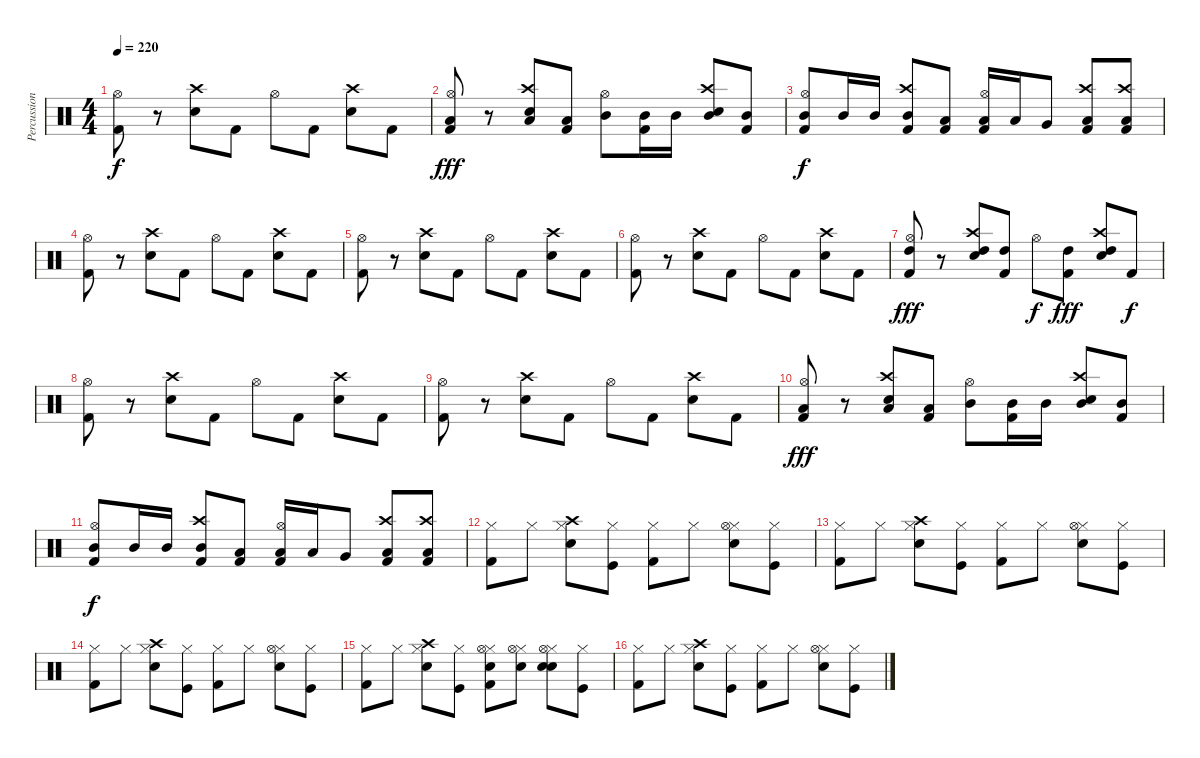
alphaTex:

\track ("Percussion" "Percussion") {instrument percussion}
\staff {score}
\articulation defaults
\ts (4 4)
\tempo 220
\clef neutral
\ks c
("Kick (hit) 2" "Hi-Hat (open)").8{dy f} r.8 ("Snare (hit) 2" "Crash high (hit)").8 "Kick (hit) 2".8 "Hi-Hat (open)".8 "Kick (hit) 2".8 ("Snare (hit) 2" "Crash high (hit)").8 "Kick (hit) 2".8 |
("Kick (hit) 2" "Low Tom (hit)" "Hi-Hat (open)").8{dy fff} r.8 ("Snare (hit) 2" "Low Tom (hit)" "Crash high (hit)").8 ("Kick (hit) 2" "Low Tom (hit)").8 ("Mid Tom (hit)" "Hi-Hat (open)").8 ("Kick (hit) 2" "Mid Tom (hit)").16 "Mid Tom (hit)".16 ("Snare (hit) 2" "Mid Tom (hit)" "Crash high (hit)").8 ("Kick (hit) 2" "Mid Tom (hit)").8 |
("Mid Tom (hit)" "Hi-Hat (open)" "Kick (hit) 2").8{dy f} "Mid Tom (hit)".16 "Mid Tom (hit)".16 ("Mid Tom (hit)" "Crash high (hit)" "Kick (hit) 2").8 ("Low Tom (hit)" "Kick (hit) 2").8 ("Low Tom (hit)" "Hi-Hat (open)" "Kick (hit) 2").16 "Low Tom (hit)".16 "Very Low Tom (hit)".8 ("Low Tom (hit)" "Crash high (hit)" "Kick (hit) 2").8 ("Low Floor Tom (hit)" "Crash high (hit)" "Kick (hit) 2").8 |
("Kick (hit) 2" "Hi-Hat (open)").8 r.8 ("Snare (hit) 2" "Crash high (hit)").8 "Kick (hit) 2".8 "Hi-Hat (open)".8 "Kick (hit) 2".8 ("Snare (hit) 2" "Crash high (hit)").8 "Kick (hit) 2".8 |
("Kick (hit) 2" "Hi-Hat (open)").8 r.8 ("Snare (hit) 2" "Crash high (hit)").8 "Kick (hit) 2".8 "Hi-Hat (open)".8 "Kick (hit) 2".8 ("Snare (hit) 2" "Crash high (hit)").8 "Kick (hit) 2".8 |
("Kick (hit) 2" "Hi-Hat (open)").8 r.8 ("Snare (hit) 2" "Crash high (hit)").8 "Kick (hit) 2".8 "Hi-Hat (open)".8 "Kick (hit) 2".8 ("Snare (hit) 2" "Crash high (hit)").8 "Kick (hit) 2".8 |
("Kick (hit) 2" "High Tom (hit)" "Hi-Hat (open)").8{dy fff} r.8 ("Snare (hit) 2" "High Tom (hit)" "Crash high (hit)").8 ("Kick (hit) 2" "High Tom (hit)").8 "Hi-Hat (open)".8{dy f} ("Kick (hit) 2" "High Tom (hit)").8{dy fff} ("Snare (hit) 2" "High Tom (hit)" "Crash high (hit)").8 "Kick (hit) 2".8{dy f} |
("Kick (hit) 2" "Hi-Hat (open)").8 r.8 ("Snare (hit) 2" "Crash high (hit)").8 "Kick (hit) 2".8 "Hi-Hat (open)".8 "Kick (hit) 2".8 ("Snare (hit) 2" "Crash high (hit)").8 "Kick (hit) 2".8 |
("Kick (hit) 2" "Hi-Hat (open)").8 r.8 ("Snare (hit) 2" "Crash high (hit)").8 "Kick (hit) 2".8 "Hi-Hat (open)".8 "Kick (hit) 2".8 ("Snare (hit) 2" "Crash high (hit)").8 "Kick (hit) 2".8 |
("Kick (hit) 2" "Low Tom (hit)" "Hi-Hat (open)").8{dy fff} r.8 ("Snare (hit) 2" "Low Tom (hit)" "Crash high (hit)").8 ("Kick (hit) 2" "Low Tom (hit)").8 ("Mid Tom (hit)" "Hi-Hat (open)").8 ("Kick (hit) 2" "Mid Tom (hit)").16 "Mid Tom (hit)".16 ("Snare (hit) 2" "Mid Tom (hit)" "Crash high (hit)").8 ("Kick (hit) 2" "Mid Tom (hit)").8 |
("Mid Tom (hit)" "Hi-Hat (open)" "Kick (hit) 2").8{dy f} "Mid Tom (hit)".16 "Mid Tom (hit)".16 ("Mid Tom (hit)" "Crash high (hit)" "Kick (hit) 2").8 ("Low Tom (hit)" "Kick (hit) 2").8 ("Low Tom (hit)" "Hi-Hat (open)" "Kick (hit) 2").16 "Low Tom (hit)".16 "Very Low Tom (hit)".8 ("Low Tom (hit)" "Crash high (hit)" "Kick (hit) 2").8 ("Low Floor Tom (hit)" "Crash high (hit)" "Kick (hit) 2").8 |
("Kick (hit) 2" "Hi-Hat (closed)").8 "Hi-Hat (closed)".8 ("Snare (hit) 2" "Hi-Hat (closed)" "Crash high (hit)").8 ("Kick (hit)" "Hi-Hat (closed)").8 ("Kick (hit) 2" "Hi-Hat (closed)").8 "Hi-Hat (closed)".8 ("Snare (hit) 2" "Hi-Hat (closed)" "Hi-Hat (open)").8 ("Kick (hit)" "Hi-Hat (closed)").8 |
("Kick (hit) 2" "Hi-Hat (closed)").8 "Hi-Hat (closed)".8 ("Snare (hit) 2" "Hi-Hat (closed)" "Crash high (hit)").8 ("Kick (hit)" "Hi-Hat (closed)").8 ("Kick (hit) 2" "Hi-Hat (closed)").8 "Hi-Hat (closed)".8 ("Snare (hit) 2" "Hi-Hat (closed)" "Hi-Hat (open)").8 ("Kick (hit)" "Hi-Hat (closed)").8 |
("Kick (hit) 2" "Hi-Hat (closed)").8 "Hi-Hat (closed)".8 ("Snare (hit) 2" "Hi-Hat (closed)" "Crash high (hit)").8 ("Kick (hit)" "Hi-Hat (closed)").8 ("Kick (hit) 2" "Hi-Hat (closed)").8 "Hi-Hat (closed)".8 ("Snare (hit) 2" "Hi-Hat (closed)" "Hi-Hat (open)").8 ("Kick (hit)" "Hi-Hat (closed)").8 |
("Kick (hit) 2" "Hi-Hat (closed)").8 "Hi-Hat (closed)".8 ("Snare (hit) 2" "Hi-Hat (closed)" "Crash high (hit)").8 ("Kick (hit)" "Hi-Hat (closed)").8 ("Kick (hit) 2" "Snare (hit) 2" "Hi-Hat (closed)" "Hi-Hat (open)").8 ("Snare (hit) 2" "Hi-Hat (closed)" "Hi-Hat (open)").8 ("Snare (hit) 2" "Snare (hit) 2" "Hi-Hat (closed)" "Hi-Hat (open)").8 ("Kick (hit)" "Hi-Hat (closed)").8 |
("Kick (hit) 2" "Hi-Hat (closed)").8 "Hi-Hat (closed)".8 ("Snare (hit) 2" "Hi-Hat (closed)" "Crash high (hit)").8 ("Kick (hit)" "Hi-Hat (closed)").8 ("Kick (hit) 2" "Hi-Hat (closed)").8 "Hi-Hat (closed)".8 ("Snare (hit) 2" "Hi-Hat (closed)" "Hi-Hat (open)").8 ("Kick (hit)" "Hi-Hat (closed)").8
